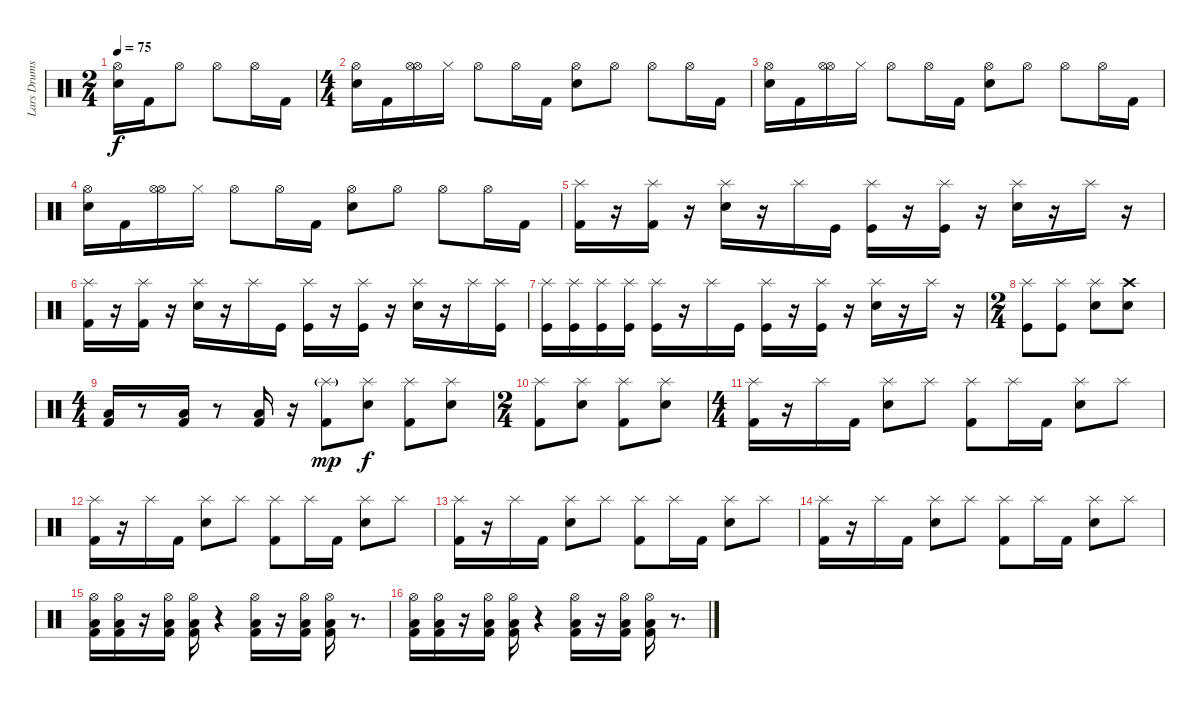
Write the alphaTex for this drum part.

\track ("Lars Drums" "Lars Drums") {instrument percussion}
\staff {score}
\articulation defaults
\ts (2 4)
\tempo 75
\clef neutral
\ks c
("Hi-Hat (open)" "Snare (hit) 2").16{dy f} "Kick (hit) 2".16 "Hi-Hat (open)".8 "Hi-Hat (open)".8 "Hi-Hat (open)".16 "Kick (hit) 2".16 |
\ts (4 4)
("Hi-Hat (open)" "Snare (hit) 2").16 "Kick (hit) 2".16 ("Hi-Hat (open)" "Hi-Hat (open)").16 "Hi-Hat (closed)".16 "Hi-Hat (open)".8 "Hi-Hat (open)".16 "Kick (hit) 2".16 ("Hi-Hat (open)" "Snare (hit) 2").8 "Hi-Hat (open)".8 "Hi-Hat (open)".8 "Hi-Hat (open)".16 "Kick (hit) 2".16 |
("Hi-Hat (open)" "Snare (hit) 2").16 "Kick (hit) 2".16 ("Hi-Hat (open)" "Hi-Hat (open)").16 "Hi-Hat (closed)".16 "Hi-Hat (open)".8 "Hi-Hat (open)".16 "Kick (hit) 2".16 ("Hi-Hat (open)" "Snare (hit) 2").8 "Hi-Hat (open)".8 "Hi-Hat (open)".8 "Hi-Hat (open)".16 "Kick (hit) 2".16 |
("Hi-Hat (open)" "Snare (hit) 2").16 "Kick (hit) 2".16 ("Hi-Hat (open)" "Hi-Hat (open)").16 "Hi-Hat (closed)".16 "Hi-Hat (open)".8 "Hi-Hat (open)".16 "Kick (hit) 2".16 ("Hi-Hat (open)" "Snare (hit) 2").8 "Hi-Hat (open)".8 "Hi-Hat (open)".8 "Hi-Hat (open)".16 "Kick (hit) 2".16 |
("Splash (hit)" "Kick (hit) 2").16 r.16 ("Splash (hit)" "Kick (hit) 2").16 r.16 ("Splash (hit)" "Snare (hit) 2").16 r.16 "Splash (hit)".16 "Kick (hit)".16 ("Splash (hit)" "Kick (hit)").16 r.16 ("Splash (hit)" "Kick (hit)").16 r.16 ("Splash (hit)" "Snare (hit) 2").16 r.16 "Splash (hit)".16 r.16 |
("Splash (hit)" "Kick (hit) 2").16 r.16 ("Splash (hit)" "Kick (hit) 2").16 r.16 ("Splash (hit)" "Snare (hit) 2").16 r.16 "Splash (hit)".16 "Kick (hit)".16 ("Splash (hit)" "Kick (hit)").16 r.16 ("Splash (hit)" "Kick (hit)").16 r.16 ("Splash (hit)" "Snare (hit) 2").16 r.16 "Splash (hit)".16 ("Splash (hit)" "Kick (hit)").16 |
("Splash (hit)" "Kick (hit)").16 ("Splash (hit)" "Kick (hit)").16 ("Splash (hit)" "Kick (hit)").16 ("Splash (hit)" "Kick (hit)").16 ("Splash (hit)" "Kick (hit)").16 r.16 "Splash (hit)".16 "Kick (hit)".16 ("Splash (hit)" "Kick (hit)").16 r.16 ("Splash (hit)" "Kick (hit)").16 r.16 ("Splash (hit)" "Snare (hit) 2").16 r.16 "Splash (hit)".16 r.16 |
\ts (2 4)
("Splash (hit)" "Kick (hit)").8 ("Splash (hit)" "Kick (hit)").8 ("Splash (hit)" "Snare (hit) 2").8 ("Crash high (hit)" "Snare (hit) 2").8 |
\ts (4 4)
("Low Floor Tom (hit)" "Kick (hit) 2").16 r.8 ("Low Floor Tom (hit)" "Kick (hit) 2").16 r.8 ("Low Floor Tom (hit)" "Kick (hit) 2").16 r.16 ("Splash (hit)"{g} "Kick (hit) 2").8{dy mp} ("Splash (hit)" "Snare (hit) 2").8{dy f} ("Splash (hit)" "Kick (hit) 2").8 ("Splash (hit)" "Snare (hit) 2").8 |
\ts (2 4)
("Splash (hit)" "Kick (hit) 2").8 ("Splash (hit)" "Snare (hit) 2").8 ("Splash (hit)" "Kick (hit) 2").8 ("Splash (hit)" "Snare (hit) 2").8 |
\ts (4 4)
("Splash (hit)" "Kick (hit) 2").16 r.16 "Splash (hit)".16 "Kick (hit) 2".16 ("Splash (hit)" "Snare (hit) 2").8 "Splash (hit)".8 ("Splash (hit)" "Kick (hit) 2").8 "Splash (hit)".16 "Kick (hit) 2".16 ("Splash (hit)" "Snare (hit) 2").8 "Splash (hit)".8 |
("Splash (hit)" "Kick (hit) 2").16 r.16 "Splash (hit)".16 "Kick (hit) 2".16 ("Splash (hit)" "Snare (hit) 2").8 "Splash (hit)".8 ("Splash (hit)" "Kick (hit) 2").8 "Splash (hit)".16 "Kick (hit) 2".16 ("Splash (hit)" "Snare (hit) 2").8 "Splash (hit)".8 |
("Splash (hit)" "Kick (hit) 2").16 r.16 "Splash (hit)".16 "Kick (hit) 2".16 ("Splash (hit)" "Snare (hit) 2").8 "Splash (hit)".8 ("Splash (hit)" "Kick (hit) 2").8 "Splash (hit)".16 "Kick (hit) 2".16 ("Splash (hit)" "Snare (hit) 2").8 "Splash (hit)".8 |
("Splash (hit)" "Kick (hit) 2").16 r.16 "Splash (hit)".16 "Kick (hit) 2".16 ("Splash (hit)" "Snare (hit) 2").8 "Splash (hit)".8 ("Splash (hit)" "Kick (hit) 2").8 "Splash (hit)".16 "Kick (hit) 2".16 ("Splash (hit)" "Snare (hit) 2").8 "Splash (hit)".8 |
("Hi-Hat (open)" "Low Floor Tom (hit)" "Kick (hit) 2").16 ("Hi-Hat (open)" "Low Floor Tom (hit)" "Kick (hit) 2").16 r.16 ("Hi-Hat (open)" "Low Floor Tom (hit)" "Kick (hit) 2").16 ("Hi-Hat (open)" "Low Floor Tom (hit)" "Kick (hit) 2").16 r.4 ("Hi-Hat (open)" "Low Floor Tom (hit)" "Kick (hit) 2").16 r.16 ("Hi-Hat (open)" "Low Floor Tom (hit)" "Kick (hit) 2").16 ("Hi-Hat (open)" "Low Floor Tom (hit)" "Kick (hit) 2").16 r.8{d} |
("Hi-Hat (open)" "Low Floor Tom (hit)" "Kick (hit) 2").16 ("Hi-Hat (open)" "Low Floor Tom (hit)" "Kick (hit) 2").16 r.16 ("Hi-Hat (open)" "Low Floor Tom (hit)" "Kick (hit) 2").16 ("Hi-Hat (open)" "Low Floor Tom (hit)" "Kick (hit) 2").16 r.4 ("Hi-Hat (open)" "Low Floor Tom (hit)" "Kick (hit) 2").16 r.16 ("Hi-Hat (open)" "Low Floor Tom (hit)" "Kick (hit) 2").16 ("Hi-Hat (open)" "Low Floor Tom (hit)" "Kick (hit) 2").16 r.8{d}
